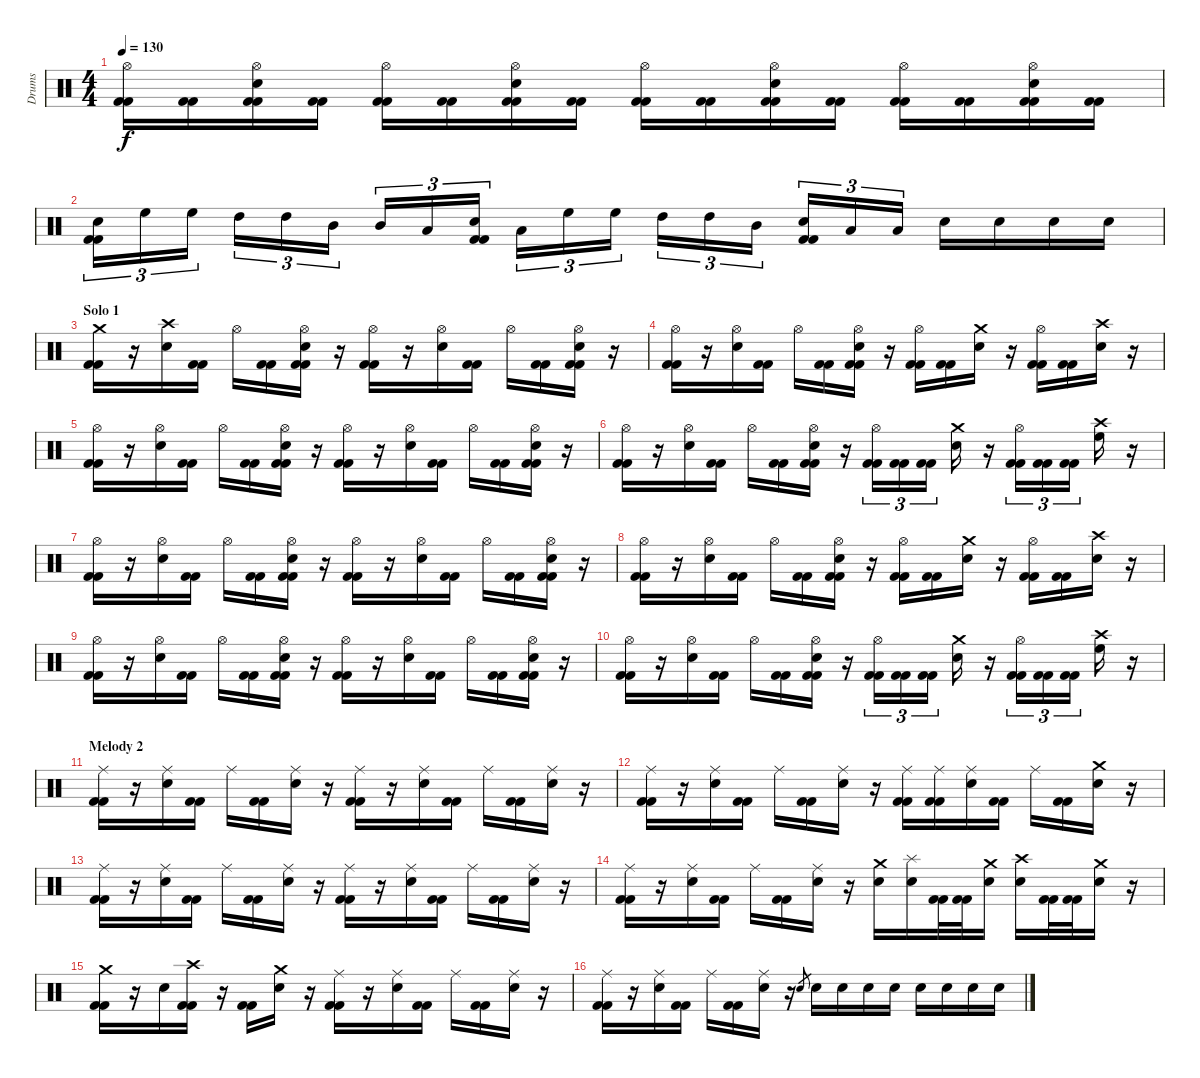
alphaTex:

\track ("Drums" "Drums") {instrument percussion}
\staff {score}
\articulation defaults
\ts (4 4)
\tempo 130
\clef neutral
\ks c
("Hi-Hat (open)" "Kick (hit) 2" "Kick (hit) 2").16{dy f} ("Kick (hit) 2" "Kick (hit) 2").16 ("Hi-Hat (open)" "Electric Snare (hit)" "Kick (hit) 2" "Kick (hit) 2").16 ("Kick (hit) 2" "Kick (hit) 2").16 ("Hi-Hat (open)" "Kick (hit) 2" "Kick (hit) 2").16 ("Kick (hit) 2" "Kick (hit) 2").16 ("Hi-Hat (open)" "Electric Snare (hit)" "Kick (hit) 2" "Kick (hit) 2").16 ("Kick (hit) 2" "Kick (hit) 2").16 ("Hi-Hat (open)" "Kick (hit) 2" "Kick (hit) 2").16 ("Kick (hit) 2" "Kick (hit) 2").16 ("Hi-Hat (open)" "Electric Snare (hit)" "Kick (hit) 2" "Kick (hit) 2").16 ("Kick (hit) 2" "Kick (hit) 2").16 ("Hi-Hat (open)" "Kick (hit) 2" "Kick (hit) 2").16 ("Kick (hit) 2" "Kick (hit) 2").16 ("Hi-Hat (open)" "Electric Snare (hit)" "Kick (hit) 2" "Kick (hit) 2").16 ("Kick (hit) 2" "Kick (hit) 2").16 |
("Electric Snare (hit)" "Kick (hit) 2" "Kick (hit) 2").16{tu (3 2)} "High Floor Tom (hit)".16{tu (3 2)} "High Floor Tom (hit)".16{tu (3 2)} "High Tom (hit)".16{tu (3 2)} "High Tom (hit)".16{tu (3 2)} "Mid Tom (hit)".16{tu (3 2)} "Mid Tom (hit)".16{tu (3 2)} "Low Tom (hit)".16{tu (3 2)} ("Electric Snare (hit)" "Kick (hit) 2" "Kick (hit) 2").16{tu (3 2)} "Low Tom (hit)".16{tu (3 2)} "High Floor Tom (hit)".16{tu (3 2)} "High Floor Tom (hit)".16{tu (3 2)} "High Tom (hit)".16{tu (3 2)} "High Tom (hit)".16{tu (3 2)} "Mid Tom (hit)".16{tu (3 2)} ("Electric Snare (hit)" "Kick (hit) 2" "Kick (hit) 2").16{tu (3 2)} "Low Tom (hit)".16{tu (3 2)} "Low Tom (hit)".16{tu (3 2)} "Electric Snare (hit)".16 "Electric Snare (hit)".16 "Electric Snare (hit)".16 "Electric Snare (hit)".16 |
\section ("" "Solo 1")
("Crash medium (hit)" "Kick (hit) 2" "Kick (hit) 2").16 r.16 ("Crash high (hit)" "Electric Snare (hit)").16 ("Kick (hit) 2" "Kick (hit) 2").16 "Hi-Hat (open)".16 ("Kick (hit) 2" "Kick (hit) 2").16 ("Hi-Hat (open)" "Electric Snare (hit)" "Kick (hit) 2" "Kick (hit) 2").16 r.16 ("Hi-Hat (open)" "Kick (hit) 2" "Kick (hit) 2").16 r.16 ("Hi-Hat (open)" "Electric Snare (hit)").16 ("Kick (hit) 2" "Kick (hit) 2").16 "Hi-Hat (open)".16 ("Kick (hit) 2" "Kick (hit) 2").16 ("Hi-Hat (open)" "Electric Snare (hit)" "Kick (hit) 2" "Kick (hit) 2").16 r.16 |
("Hi-Hat (open)" "Kick (hit) 2" "Kick (hit) 2").16 r.16 ("Hi-Hat (open)" "Electric Snare (hit)").16 ("Kick (hit) 2" "Kick (hit) 2").16 "Hi-Hat (open)".16 ("Kick (hit) 2" "Kick (hit) 2").16 ("Hi-Hat (open)" "Electric Snare (hit)" "Kick (hit) 2" "Kick (hit) 2").16 r.16 ("Hi-Hat (open)" "Kick (hit) 2" "Kick (hit) 2").16 ("Kick (hit) 2" "Kick (hit) 2").16 ("Crash medium (hit)" "Electric Snare (hit)").16 r.16 ("Hi-Hat (open)" "Kick (hit) 2" "Kick (hit) 2").16 ("Kick (hit) 2" "Kick (hit) 2").16 ("Crash high (hit)" "Electric Snare (hit)").16 r.16 |
("Hi-Hat (open)" "Kick (hit) 2" "Kick (hit) 2").16 r.16 ("Hi-Hat (open)" "Electric Snare (hit)").16 ("Kick (hit) 2" "Kick (hit) 2").16 "Hi-Hat (open)".16 ("Kick (hit) 2" "Kick (hit) 2").16 ("Hi-Hat (open)" "Electric Snare (hit)" "Kick (hit) 2" "Kick (hit) 2").16 r.16 ("Hi-Hat (open)" "Kick (hit) 2" "Kick (hit) 2").16 r.16 ("Hi-Hat (open)" "Electric Snare (hit)").16 ("Kick (hit) 2" "Kick (hit) 2").16 "Hi-Hat (open)".16 ("Kick (hit) 2" "Kick (hit) 2").16 ("Hi-Hat (open)" "Electric Snare (hit)" "Kick (hit) 2" "Kick (hit) 2").16 r.16 |
("Hi-Hat (open)" "Kick (hit) 2" "Kick (hit) 2").16 r.16 ("Hi-Hat (open)" "Electric Snare (hit)").16 ("Kick (hit) 2" "Kick (hit) 2").16 "Hi-Hat (open)".16 ("Kick (hit) 2" "Kick (hit) 2").16 ("Hi-Hat (open)" "Electric Snare (hit)" "Kick (hit) 2" "Kick (hit) 2").16 r.16 ("Hi-Hat (open)" "Kick (hit) 2" "Kick (hit) 2").16{tu (3 2)} ("Kick (hit) 2" "Kick (hit) 2").16{tu (3 2)} ("Kick (hit) 2" "Kick (hit) 2").16{tu (3 2)} ("Crash medium (hit)" "Electric Snare (hit)").16 r.16 ("Hi-Hat (open)" "Kick (hit) 2" "Kick (hit) 2").16{tu (3 2)} ("Kick (hit) 2" "Kick (hit) 2").16{tu (3 2)} ("Kick (hit) 2" "Kick (hit) 2").16{tu (3 2)} ("Crash high (hit)" "High Floor Tom (hit)").16 r.16 |
("Hi-Hat (open)" "Kick (hit) 2" "Kick (hit) 2").16 r.16 ("Hi-Hat (open)" "Electric Snare (hit)").16 ("Kick (hit) 2" "Kick (hit) 2").16 "Hi-Hat (open)".16 ("Kick (hit) 2" "Kick (hit) 2").16 ("Hi-Hat (open)" "Electric Snare (hit)" "Kick (hit) 2" "Kick (hit) 2").16 r.16 ("Hi-Hat (open)" "Kick (hit) 2" "Kick (hit) 2").16 r.16 ("Hi-Hat (open)" "Electric Snare (hit)").16 ("Kick (hit) 2" "Kick (hit) 2").16 "Hi-Hat (open)".16 ("Kick (hit) 2" "Kick (hit) 2").16 ("Hi-Hat (open)" "Electric Snare (hit)" "Kick (hit) 2" "Kick (hit) 2").16 r.16 |
("Hi-Hat (open)" "Kick (hit) 2" "Kick (hit) 2").16 r.16 ("Hi-Hat (open)" "Electric Snare (hit)").16 ("Kick (hit) 2" "Kick (hit) 2").16 "Hi-Hat (open)".16 ("Kick (hit) 2" "Kick (hit) 2").16 ("Hi-Hat (open)" "Electric Snare (hit)" "Kick (hit) 2" "Kick (hit) 2").16 r.16 ("Hi-Hat (open)" "Kick (hit) 2" "Kick (hit) 2").16 ("Kick (hit) 2" "Kick (hit) 2").16 ("Crash medium (hit)" "Electric Snare (hit)").16 r.16 ("Hi-Hat (open)" "Kick (hit) 2" "Kick (hit) 2").16 ("Kick (hit) 2" "Kick (hit) 2").16 ("Crash high (hit)" "Electric Snare (hit)").16 r.16 |
("Hi-Hat (open)" "Kick (hit) 2" "Kick (hit) 2").16 r.16 ("Hi-Hat (open)" "Electric Snare (hit)").16 ("Kick (hit) 2" "Kick (hit) 2").16 "Hi-Hat (open)".16 ("Kick (hit) 2" "Kick (hit) 2").16 ("Hi-Hat (open)" "Electric Snare (hit)" "Kick (hit) 2" "Kick (hit) 2").16 r.16 ("Hi-Hat (open)" "Kick (hit) 2" "Kick (hit) 2").16 r.16 ("Hi-Hat (open)" "Electric Snare (hit)").16 ("Kick (hit) 2" "Kick (hit) 2").16 "Hi-Hat (open)".16 ("Kick (hit) 2" "Kick (hit) 2").16 ("Hi-Hat (open)" "Electric Snare (hit)" "Kick (hit) 2" "Kick (hit) 2").16 r.16 |
("Hi-Hat (open)" "Kick (hit) 2" "Kick (hit) 2").16 r.16 ("Hi-Hat (open)" "Electric Snare (hit)").16 ("Kick (hit) 2" "Kick (hit) 2").16 "Hi-Hat (open)".16 ("Kick (hit) 2" "Kick (hit) 2").16 ("Hi-Hat (open)" "Electric Snare (hit)" "Kick (hit) 2" "Kick (hit) 2").16 r.16 ("Hi-Hat (open)" "Kick (hit) 2" "Kick (hit) 2").16{tu (3 2)} ("Kick (hit) 2" "Kick (hit) 2").16{tu (3 2)} ("Kick (hit) 2" "Kick (hit) 2").16{tu (3 2)} ("Crash medium (hit)" "Electric Snare (hit)").16 r.16 ("Hi-Hat (open)" "Kick (hit) 2" "Kick (hit) 2").16{tu (3 2)} ("Kick (hit) 2" "Kick (hit) 2").16{tu (3 2)} ("Kick (hit) 2" "Kick (hit) 2").16{tu (3 2)} ("Crash high (hit)" "High Floor Tom (hit)").16 r.16 |
\section ("" "Melody 2")
("Ride (middle)" "Kick (hit) 2" "Kick (hit) 2").16 r.16 ("Ride (middle)" "Electric Snare (hit)").16 ("Kick (hit) 2" "Kick (hit) 2").16 "Ride (middle)".16 ("Kick (hit) 2" "Kick (hit) 2").16 ("Ride (middle)" "Electric Snare (hit)").16 r.16 ("Ride (middle)" "Kick (hit) 2" "Kick (hit) 2").16 r.16 ("Ride (middle)" "Electric Snare (hit)").16 ("Kick (hit) 2" "Kick (hit) 2").16 "Ride (middle)".16 ("Kick (hit) 2" "Kick (hit) 2").16 ("Ride (middle)" "Electric Snare (hit)").16 r.16 |
("Ride (middle)" "Kick (hit) 2" "Kick (hit) 2").16 r.16 ("Ride (middle)" "Electric Snare (hit)").16 ("Kick (hit) 2" "Kick (hit) 2").16 "Ride (middle)".16 ("Kick (hit) 2" "Kick (hit) 2").16 ("Ride (middle)" "Electric Snare (hit)").16 r.16 ("Ride (middle)" "Kick (hit) 2" "Kick (hit) 2").16 ("Ride (middle)" "Kick (hit) 2" "Kick (hit) 2").16 ("Ride (middle)" "Electric Snare (hit)").16 ("Kick (hit) 2" "Kick (hit) 2").16 "Ride (middle)".16 ("Kick (hit) 2" "Kick (hit) 2").16 ("Crash medium (hit)" "Electric Snare (hit)").16 r.16 |
("Ride (middle)" "Kick (hit) 2" "Kick (hit) 2").16 r.16 ("Ride (middle)" "Electric Snare (hit)").16 ("Kick (hit) 2" "Kick (hit) 2").16 "Ride (middle)".16 ("Kick (hit) 2" "Kick (hit) 2").16 ("Ride (middle)" "Electric Snare (hit)").16 r.16 ("Ride (middle)" "Kick (hit) 2" "Kick (hit) 2").16 r.16 ("Ride (middle)" "Electric Snare (hit)").16 ("Kick (hit) 2" "Kick (hit) 2").16 "Ride (middle)".16 ("Kick (hit) 2" "Kick (hit) 2").16 ("Ride (middle)" "Electric Snare (hit)").16 r.16 |
("Ride (middle)" "Kick (hit) 2" "Kick (hit) 2").16 r.16 ("Ride (middle)" "Electric Snare (hit)").16 ("Kick (hit) 2" "Kick (hit) 2").16 "Ride (middle)".16 ("Kick (hit) 2" "Kick (hit) 2").16 ("Ride (middle)" "Electric Snare (hit)").16 r.16 ("Crash medium (hit)" "Electric Snare (hit)").16 ("Splash (hit)" "Electric Snare (hit)").16 ("Kick (hit) 2" "Kick (hit) 2").32 ("Kick (hit) 2" "Kick (hit) 2").32 ("Crash medium (hit)" "Electric Snare (hit)").16 ("Crash high (hit)" "Electric Snare (hit)").16 ("Kick (hit) 2" "Kick (hit) 2").32 ("Kick (hit) 2" "Kick (hit) 2").32 ("Crash medium (hit)" "Electric Snare (hit)").16 r.16 |
("Crash medium (hit)" "Kick (hit) 2" "Kick (hit) 2").16 r.16 "Electric Snare (hit)".16 ("Crash high (hit)" "Kick (hit) 2" "Kick (hit) 2").16 r.16 ("Kick (hit) 2" "Kick (hit) 2").16 ("Crash medium (hit)" "Electric Snare (hit)").16 r.16 ("Ride (middle)" "Kick (hit) 2" "Kick (hit) 2").16 r.16 ("Ride (middle)" "Electric Snare (hit)").16 ("Kick (hit) 2" "Kick (hit) 2").16 "Ride (middle)".16 ("Kick (hit) 2" "Kick (hit) 2").16 ("Ride (middle)" "Electric Snare (hit)").16 r.16 |
("Ride (middle)" "Kick (hit) 2" "Kick (hit) 2").16 r.16 ("Ride (middle)" "Electric Snare (hit)").16 ("Kick (hit) 2" "Kick (hit) 2").16 "Ride (middle)".16 ("Kick (hit) 2" "Kick (hit) 2").16 ("Ride (middle)" "Electric Snare (hit)").16 r.16 "Electric Snare (hit)".8{gr} "Electric Snare (hit)".16 "Electric Snare (hit)".16 "Electric Snare (hit)".16 "Electric Snare (hit)".16 "Electric Snare (hit)".16 "Electric Snare (hit)".16 "Electric Snare (hit)".16 "Electric Snare (hit)".16
